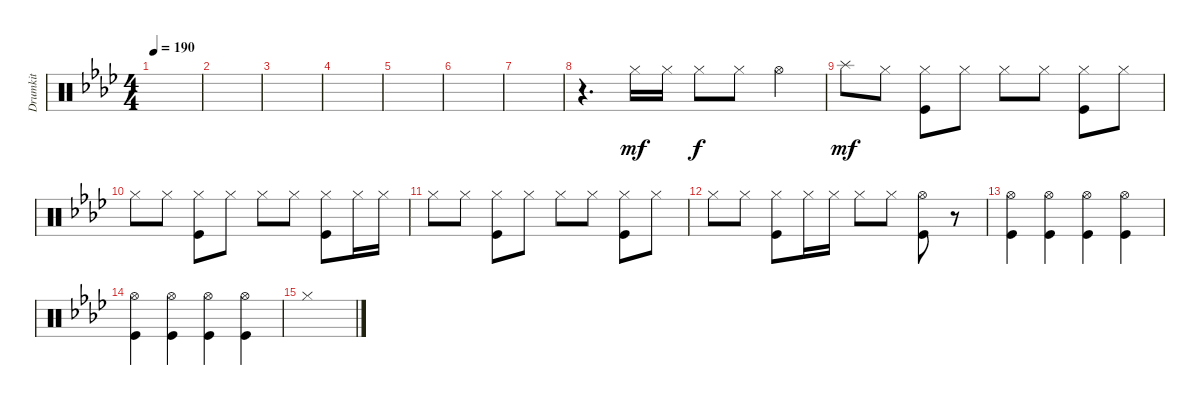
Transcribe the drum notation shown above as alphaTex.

\track ("Drumkit" "Drumkit") {instrument percussion}
\staff {score}
\articulation defaults
\ts (4 4)
\tempo 190
\clef neutral
\ks ab
|
|
|
|
|
|
|
r.4{d} "Hi-Hat (closed)".16{dy mf} "Hi-Hat (closed)".16 "Hi-Hat (closed)".8{dy f} "Hi-Hat (closed)".8 "Hi-Hat (open)".4 |
"Splash (hit)".8{dy mf} "Hi-Hat (closed)".8 ("Hi-Hat (closed)" "Kick (hit)").8 "Hi-Hat (closed)".8 "Hi-Hat (closed)".8 "Hi-Hat (closed)".8 ("Hi-Hat (closed)" "Kick (hit)").8 "Hi-Hat (closed)".8 |
"Hi-Hat (closed)".8 "Hi-Hat (closed)".8 ("Hi-Hat (closed)" "Kick (hit)").8 "Hi-Hat (closed)".8 "Hi-Hat (closed)".8 "Hi-Hat (closed)".8 ("Hi-Hat (closed)" "Kick (hit)").8 "Hi-Hat (closed)".16 "Hi-Hat (closed)".16 |
"Hi-Hat (closed)".8 "Hi-Hat (closed)".8 ("Hi-Hat (closed)" "Kick (hit)").8 "Hi-Hat (closed)".8 "Hi-Hat (closed)".8 "Hi-Hat (closed)".8 ("Hi-Hat (closed)" "Kick (hit)").8 "Hi-Hat (closed)".8 |
"Hi-Hat (closed)".8 "Hi-Hat (closed)".8 ("Hi-Hat (closed)" "Kick (hit)").8 "Hi-Hat (closed)".16 "Hi-Hat (closed)".16 "Hi-Hat (closed)".8 "Hi-Hat (closed)".8 ("Kick (hit)" "Hi-Hat (open)").8 r.8 |
("Hi-Hat (open)" "Kick (hit)").4 ("Hi-Hat (open)" "Kick (hit)").4 ("Hi-Hat (open)" "Kick (hit)").4 ("Hi-Hat (open)" "Kick (hit)").4 |
("Hi-Hat (open)" "Kick (hit)").4 ("Hi-Hat (open)" "Kick (hit)").4 ("Hi-Hat (open)" "Kick (hit)").4 ("Hi-Hat (open)" "Kick (hit)").4 |
"Hi-Hat (closed)".1
